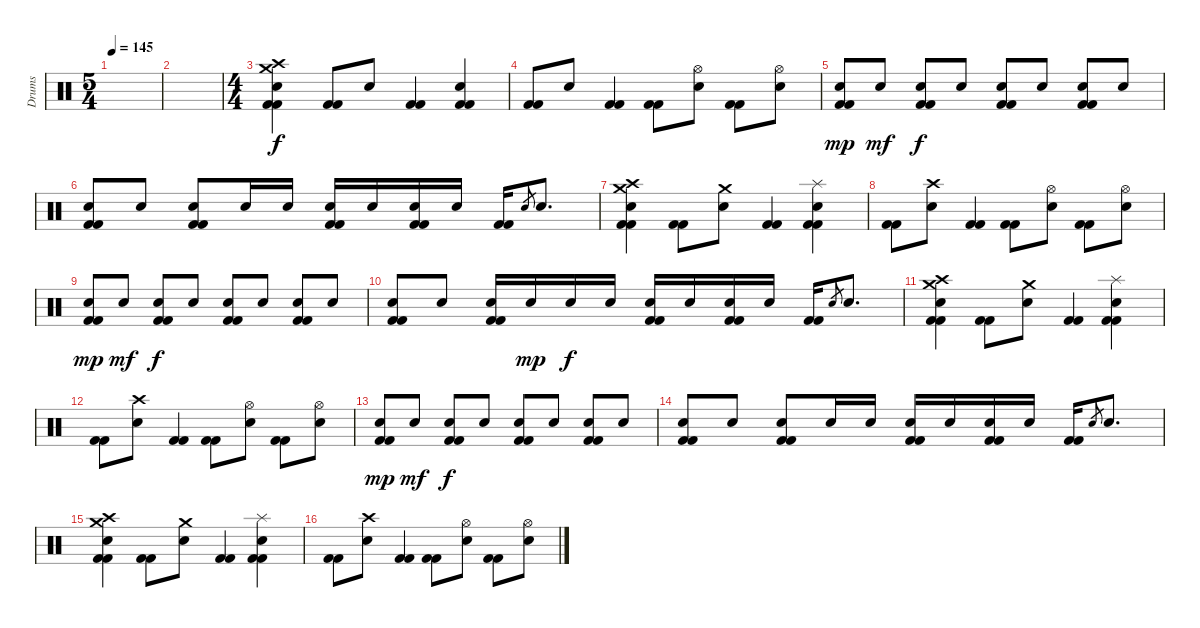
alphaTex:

\track ("Drums" "Drums") {instrument percussion}
\staff {score}
\articulation defaults
\ts (5 4)
\tempo 145
\clef neutral
\ks c
|
|
\ts (4 4)
("Crash high (hit)" "Crash medium (hit)" "Electric Snare (hit)" "Kick (hit) 2" "Kick (hit) 2").4 ("Kick (hit) 2" "Kick (hit) 2").8 "Electric Snare (hit)".8 ("Kick (hit) 2" "Kick (hit) 2").4 ("Electric Snare (hit)" "Kick (hit) 2" "Kick (hit) 2").4 |
("Kick (hit) 2" "Kick (hit) 2").8 "Electric Snare (hit)".8 ("Kick (hit) 2" "Kick (hit) 2").4 ("Kick (hit) 2" "Kick (hit) 2").8 ("Hi-Hat (open)" "Electric Snare (hit)").8 ("Kick (hit) 2" "Kick (hit) 2").8 ("Hi-Hat (open)" "Electric Snare (hit)").8 |
("Electric Snare (hit)" "Kick (hit) 2" "Kick (hit) 2").8{dy mp} "Electric Snare (hit)".8{dy mf} ("Electric Snare (hit)" "Kick (hit) 2" "Kick (hit) 2").8{dy f} "Electric Snare (hit)".8 ("Electric Snare (hit)" "Kick (hit) 2" "Kick (hit) 2").8 "Electric Snare (hit)".8 ("Electric Snare (hit)" "Kick (hit) 2" "Kick (hit) 2").8 "Electric Snare (hit)".8 |
("Electric Snare (hit)" "Kick (hit) 2" "Kick (hit) 2").8 "Electric Snare (hit)".8 ("Electric Snare (hit)" "Kick (hit) 2" "Kick (hit) 2").8 "Electric Snare (hit)".16 "Electric Snare (hit)".16 ("Electric Snare (hit)" "Kick (hit) 2" "Kick (hit) 2").16 "Electric Snare (hit)".16 ("Electric Snare (hit)" "Kick (hit) 2" "Kick (hit) 2").16 "Electric Snare (hit)".16 ("Kick (hit) 2" "Kick (hit) 2").16 "Electric Snare (hit)".8{gr} "Electric Snare (hit)".8{d} |
("Crash high (hit)" "Crash medium (hit)" "Electric Snare (hit)" "Kick (hit) 2" "Kick (hit) 2").4 ("Kick (hit) 2" "Kick (hit) 2").8 ("Crash medium (hit)" "Electric Snare (hit)").8 ("Kick (hit) 2" "Kick (hit) 2").4 ("Splash (hit)" "Electric Snare (hit)" "Kick (hit) 2" "Kick (hit) 2").4 |
("Kick (hit) 2" "Kick (hit) 2").8 ("Crash high (hit)" "Electric Snare (hit)").8 ("Kick (hit) 2" "Kick (hit) 2").4 ("Kick (hit) 2" "Kick (hit) 2").8 ("Hi-Hat (open)" "Electric Snare (hit)").8 ("Kick (hit) 2" "Kick (hit) 2").8 ("Hi-Hat (open)" "Electric Snare (hit)").8 |
("Electric Snare (hit)" "Kick (hit) 2" "Kick (hit) 2").8{dy mp} "Electric Snare (hit)".8{dy mf} ("Electric Snare (hit)" "Kick (hit) 2" "Kick (hit) 2").8{dy f} "Electric Snare (hit)".8 ("Electric Snare (hit)" "Kick (hit) 2" "Kick (hit) 2").8 "Electric Snare (hit)".8 ("Electric Snare (hit)" "Kick (hit) 2" "Kick (hit) 2").8 "Electric Snare (hit)".8 |
("Electric Snare (hit)" "Kick (hit) 2" "Kick (hit) 2").8 "Electric Snare (hit)".8 ("Electric Snare (hit)" "Kick (hit) 2" "Kick (hit) 2").16 "Electric Snare (hit)".16{dy mp} "Electric Snare (hit)".16{dy f} "Electric Snare (hit)".16 ("Electric Snare (hit)" "Kick (hit) 2" "Kick (hit) 2").16 "Electric Snare (hit)".16 ("Electric Snare (hit)" "Kick (hit) 2" "Kick (hit) 2").16 "Electric Snare (hit)".16 ("Kick (hit) 2" "Kick (hit) 2").16 "Electric Snare (hit)".8{gr} "Electric Snare (hit)".8{d} |
("Crash high (hit)" "Crash medium (hit)" "Electric Snare (hit)" "Kick (hit) 2" "Kick (hit) 2").4 ("Kick (hit) 2" "Kick (hit) 2").8 ("Crash medium (hit)" "Electric Snare (hit)").8 ("Kick (hit) 2" "Kick (hit) 2").4 ("Splash (hit)" "Electric Snare (hit)" "Kick (hit) 2" "Kick (hit) 2").4 |
("Kick (hit) 2" "Kick (hit) 2").8 ("Crash high (hit)" "Electric Snare (hit)").8 ("Kick (hit) 2" "Kick (hit) 2").4 ("Kick (hit) 2" "Kick (hit) 2").8 ("Hi-Hat (open)" "Electric Snare (hit)").8 ("Kick (hit) 2" "Kick (hit) 2").8 ("Hi-Hat (open)" "Electric Snare (hit)").8 |
("Electric Snare (hit)" "Kick (hit) 2" "Kick (hit) 2").8{dy mp} "Electric Snare (hit)".8{dy mf} ("Electric Snare (hit)" "Kick (hit) 2" "Kick (hit) 2").8{dy f} "Electric Snare (hit)".8 ("Electric Snare (hit)" "Kick (hit) 2" "Kick (hit) 2").8 "Electric Snare (hit)".8 ("Electric Snare (hit)" "Kick (hit) 2" "Kick (hit) 2").8 "Electric Snare (hit)".8 |
("Electric Snare (hit)" "Kick (hit) 2" "Kick (hit) 2").8 "Electric Snare (hit)".8 ("Electric Snare (hit)" "Kick (hit) 2" "Kick (hit) 2").8 "Electric Snare (hit)".16 "Electric Snare (hit)".16 ("Electric Snare (hit)" "Kick (hit) 2" "Kick (hit) 2").16 "Electric Snare (hit)".16 ("Electric Snare (hit)" "Kick (hit) 2" "Kick (hit) 2").16 "Electric Snare (hit)".16 ("Kick (hit) 2" "Kick (hit) 2").16 "Electric Snare (hit)".8{gr} "Electric Snare (hit)".8{d} |
("Crash high (hit)" "Crash medium (hit)" "Electric Snare (hit)" "Kick (hit) 2" "Kick (hit) 2").4 ("Kick (hit) 2" "Kick (hit) 2").8 ("Crash medium (hit)" "Electric Snare (hit)").8 ("Kick (hit) 2" "Kick (hit) 2").4 ("Splash (hit)" "Electric Snare (hit)" "Kick (hit) 2" "Kick (hit) 2").4 |
("Kick (hit) 2" "Kick (hit) 2").8 ("Crash high (hit)" "Electric Snare (hit)").8 ("Kick (hit) 2" "Kick (hit) 2").4 ("Kick (hit) 2" "Kick (hit) 2").8 ("Hi-Hat (open)" "Electric Snare (hit)").8 ("Kick (hit) 2" "Kick (hit) 2").8 ("Hi-Hat (open)" "Electric Snare (hit)").8
